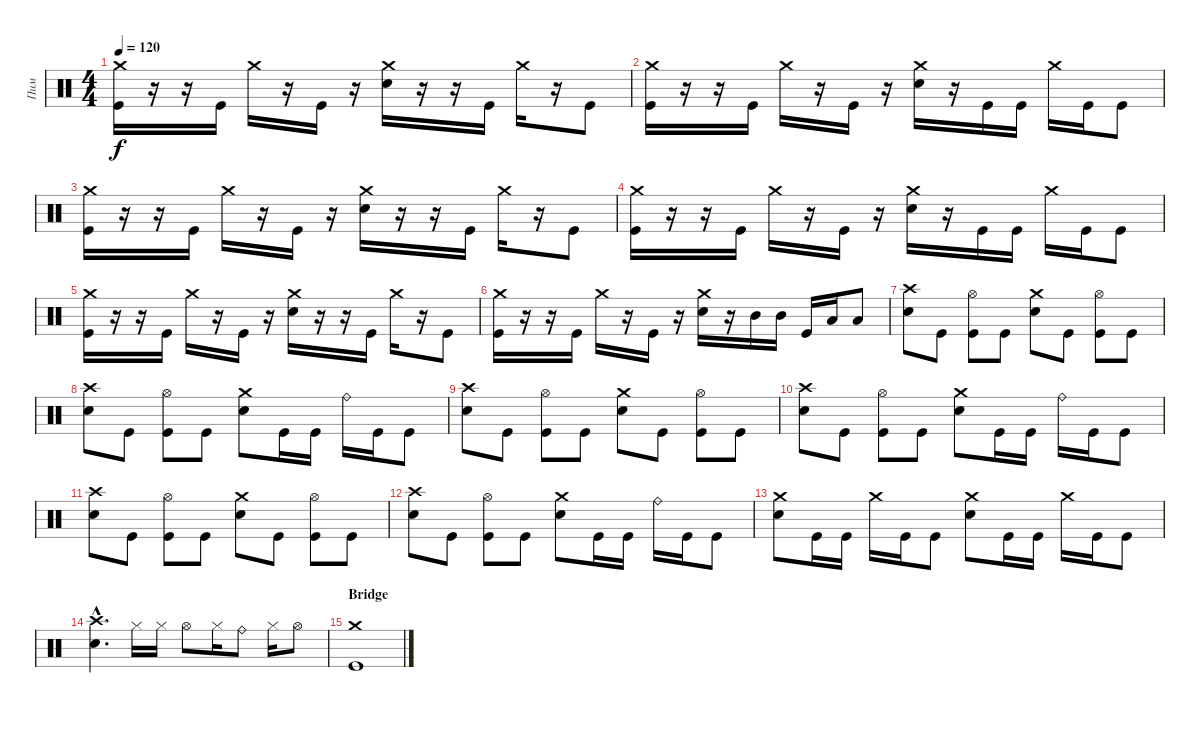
\track ("Пим" "Пим") {instrument percussion}
\staff {score}
\articulation defaults
\ts (4 4)
\tempo 120
\clef neutral
\ks c
("Crash medium (hit)" "Kick (hit)").16{dy f} r.16 r.16 "Kick (hit)".16 "Crash medium (hit)".16 r.16 "Kick (hit)".16 r.16 ("Crash medium (hit)" "Snare (hit) 2").16 r.16 r.16 "Kick (hit)".16 "Crash medium (hit)".16 r.16 "Kick (hit)".8 |
("Crash medium (hit)" "Kick (hit)").16 r.16 r.16 "Kick (hit)".16 "Crash medium (hit)".16 r.16 "Kick (hit)".16 r.16 ("Crash medium (hit)" "Snare (hit) 2").16 r.16 "Kick (hit)".16 "Kick (hit)".16 "Crash medium (hit)".16 "Kick (hit)".16 "Kick (hit)".8 |
("Crash medium (hit)" "Kick (hit)").16 r.16 r.16 "Kick (hit)".16 "Crash medium (hit)".16 r.16 "Kick (hit)".16 r.16 ("Crash medium (hit)" "Snare (hit) 2").16 r.16 r.16 "Kick (hit)".16 "Crash medium (hit)".16 r.16 "Kick (hit)".8 |
("Crash medium (hit)" "Kick (hit)").16 r.16 r.16 "Kick (hit)".16 "Crash medium (hit)".16 r.16 "Kick (hit)".16 r.16 ("Crash medium (hit)" "Snare (hit) 2").16 r.16 "Kick (hit)".16 "Kick (hit)".16 "Crash medium (hit)".16 "Kick (hit)".16 "Kick (hit)".8 |
("Crash medium (hit)" "Kick (hit)").16 r.16 r.16 "Kick (hit)".16 "Crash medium (hit)".16 r.16 "Kick (hit)".16 r.16 ("Crash medium (hit)" "Snare (hit) 2").16 r.16 r.16 "Kick (hit)".16 "Crash medium (hit)".16 r.16 "Kick (hit)".8 |
("Crash medium (hit)" "Kick (hit)").16 r.16 r.16 "Kick (hit)".16 "Crash medium (hit)".16 r.16 "Kick (hit)".16 r.16 ("Crash medium (hit)" "Snare (hit) 2").16 r.16 "Mid Tom (hit)".16 "Mid Tom (hit)".16 "Kick (hit)".16 "Low Tom (hit)".16 "Low Tom (hit)".8 |
("Crash high (hit)" "Snare (hit) 2").8 "Kick (hit)".8 ("Hi-Hat (open)" "Kick (hit)").8 "Kick (hit)".8 ("Crash medium (hit)" "Snare (hit) 2").8 "Kick (hit)".8 ("Hi-Hat (open)" "Kick (hit)").8 "Kick (hit)".8 |
("Crash high (hit)" "Snare (hit) 2").8 "Kick (hit)".8 ("Hi-Hat (open)" "Kick (hit)").8 "Kick (hit)".8 ("Crash medium (hit)" "Snare (hit) 2").8 "Kick (hit)".16 "Kick (hit)".16 "Ride (bell)".16 "Kick (hit)".16 "Kick (hit)".8 |
("Crash high (hit)" "Snare (hit) 2").8 "Kick (hit)".8 ("Hi-Hat (open)" "Kick (hit)").8 "Kick (hit)".8 ("Crash medium (hit)" "Snare (hit) 2").8 "Kick (hit)".8 ("Hi-Hat (open)" "Kick (hit)").8 "Kick (hit)".8 |
("Crash high (hit)" "Snare (hit) 2").8 "Kick (hit)".8 ("Hi-Hat (open)" "Kick (hit)").8 "Kick (hit)".8 ("Crash medium (hit)" "Snare (hit) 2").8 "Kick (hit)".16 "Kick (hit)".16 "Ride (bell)".16 "Kick (hit)".16 "Kick (hit)".8 |
("Crash high (hit)" "Snare (hit) 2").8 "Kick (hit)".8 ("Hi-Hat (open)" "Kick (hit)").8 "Kick (hit)".8 ("Crash medium (hit)" "Snare (hit) 2").8 "Kick (hit)".8 ("Hi-Hat (open)" "Kick (hit)").8 "Kick (hit)".8 |
("Crash high (hit)" "Snare (hit) 2").8 "Kick (hit)".8 ("Hi-Hat (open)" "Kick (hit)").8 "Kick (hit)".8 ("Crash medium (hit)" "Snare (hit) 2").8 "Kick (hit)".16 "Kick (hit)".16 "Ride (bell)".16 "Kick (hit)".16 "Kick (hit)".8 |
("Crash medium (hit)" "Snare (hit) 2").8 "Kick (hit)".16 "Kick (hit)".16 "Crash medium (hit)".16 "Kick (hit)".16 "Kick (hit)".8 ("Crash medium (hit)" "Snare (hit) 2").8 "Kick (hit)".16 "Kick (hit)".16 "Crash medium (hit)".16 "Kick (hit)".16 "Kick (hit)".8 |
("Crash high (hit)"{hac} "Snare (hit) 2"{hac}).4{d} "Hi-Hat (closed)".16 "Hi-Hat (closed)".16 "Hi-Hat (open)".8 "Hi-Hat (closed)".16 "Ride (bell)".8 "Hi-Hat (closed)".16 "Hi-Hat (open)".8 |
\section ("" "Bridge")
("Crash medium (hit)" "Kick (hit)").1
